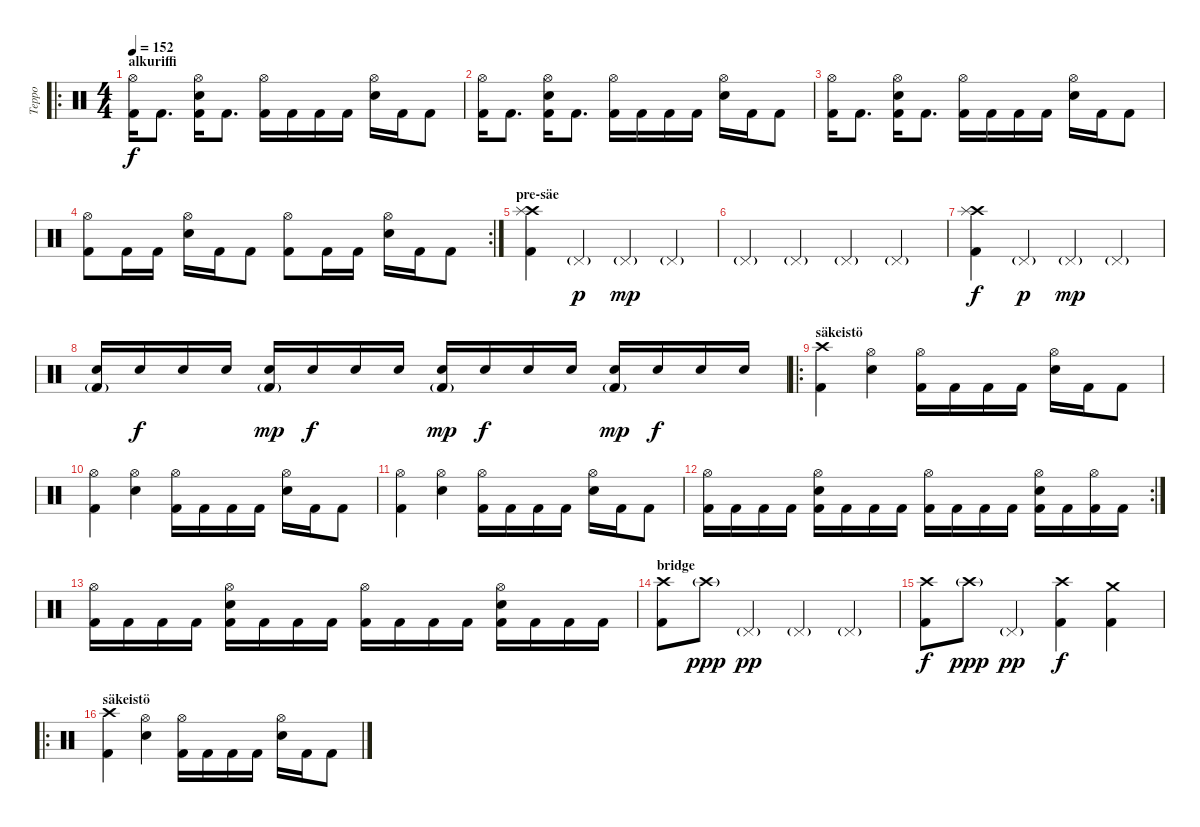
\track ("Teppo" "Teppo") {instrument percussion}
\staff {score}
\articulation defaults
\ro
\ts (4 4)
\section ("" "alkuriffi")
\tempo 152
\clef neutral
\ks c
("Hi-Hat (open)" "Kick (hit) 2").16{dy f} "Kick (hit) 2".8{d} ("Hi-Hat (open)" "Electric Snare (hit)" "Kick (hit) 2").16 "Kick (hit) 2".8{d} ("Hi-Hat (open)" "Kick (hit) 2").16 "Kick (hit) 2".16 "Kick (hit) 2".16 "Kick (hit) 2".16 ("Hi-Hat (open)" "Electric Snare (hit)").16 "Kick (hit) 2".16 "Kick (hit) 2".8 |
("Hi-Hat (open)" "Kick (hit) 2").16 "Kick (hit) 2".8{d} ("Hi-Hat (open)" "Electric Snare (hit)" "Kick (hit) 2").16 "Kick (hit) 2".8{d} ("Hi-Hat (open)" "Kick (hit) 2").16 "Kick (hit) 2".16 "Kick (hit) 2".16 "Kick (hit) 2".16 ("Hi-Hat (open)" "Electric Snare (hit)").16 "Kick (hit) 2".16 "Kick (hit) 2".8 |
("Hi-Hat (open)" "Kick (hit) 2").16 "Kick (hit) 2".8{d} ("Hi-Hat (open)" "Electric Snare (hit)" "Kick (hit) 2").16 "Kick (hit) 2".8{d} ("Hi-Hat (open)" "Kick (hit) 2").16 "Kick (hit) 2".16 "Kick (hit) 2".16 "Kick (hit) 2".16 ("Hi-Hat (open)" "Electric Snare (hit)").16 "Kick (hit) 2".16 "Kick (hit) 2".8 |
\rc 2
("Hi-Hat (open)" "Kick (hit) 2").8 "Kick (hit) 2".16 "Kick (hit) 2".16 ("Hi-Hat (open)" "Electric Snare (hit)").16 "Kick (hit) 2".16 "Kick (hit) 2".8 ("Hi-Hat (open)" "Kick (hit) 2").8 "Kick (hit) 2".16 "Kick (hit) 2".16 ("Hi-Hat (open)" "Electric Snare (hit)").16 "Kick (hit) 2".16 "Kick (hit) 2".8 |
\section ("" "pre-säe")
("Crash high (hit)" "Splash (hit)" "Kick (hit) 2").4 "Pedal Hi-Hat (hit)"{g}.4{dy p} "Pedal Hi-Hat (hit)"{g}.4{dy mp} "Pedal Hi-Hat (hit)"{g}.4 |
"Pedal Hi-Hat (hit)"{g}.4 "Pedal Hi-Hat (hit)"{g}.4 "Pedal Hi-Hat (hit)"{g}.4 "Pedal Hi-Hat (hit)"{g}.4 |
("Crash high (hit)" "Splash (hit)" "Kick (hit) 2").4{dy f} "Pedal Hi-Hat (hit)"{g}.4{dy p} "Pedal Hi-Hat (hit)"{g}.4{dy mp} "Pedal Hi-Hat (hit)"{g}.4 |
("Electric Snare (hit)" "Kick (hit) 2"{g}).16 "Electric Snare (hit)".16{dy f} "Electric Snare (hit)".16 "Electric Snare (hit)".16 ("Electric Snare (hit)" "Kick (hit) 2"{g}).16{dy mp} "Electric Snare (hit)".16{dy f} "Electric Snare (hit)".16 "Electric Snare (hit)".16 ("Electric Snare (hit)" "Kick (hit) 2"{g}).16{dy mp} "Electric Snare (hit)".16{dy f} "Electric Snare (hit)".16 "Electric Snare (hit)".16 ("Electric Snare (hit)" "Kick (hit) 2"{g}).16{dy mp} "Electric Snare (hit)".16{dy f} "Electric Snare (hit)".16 "Electric Snare (hit)".16 |
\ro
\section ("" "säkeistö")
("Crash high (hit)" "Kick (hit) 2").4 ("Hi-Hat (open)" "Electric Snare (hit)").4 ("Hi-Hat (open)" "Kick (hit) 2").16 "Kick (hit) 2".16 "Kick (hit) 2".16 "Kick (hit) 2".16 ("Hi-Hat (open)" "Electric Snare (hit)").16 "Kick (hit) 2".16 "Kick (hit) 2".8 |
("Hi-Hat (open)" "Kick (hit) 2").4 ("Hi-Hat (open)" "Electric Snare (hit)").4 ("Hi-Hat (open)" "Kick (hit) 2").16 "Kick (hit) 2".16 "Kick (hit) 2".16 "Kick (hit) 2".16 ("Hi-Hat (open)" "Electric Snare (hit)").16 "Kick (hit) 2".16 "Kick (hit) 2".8 |
("Hi-Hat (open)" "Kick (hit) 2").4 ("Hi-Hat (open)" "Electric Snare (hit)").4 ("Hi-Hat (open)" "Kick (hit) 2").16 "Kick (hit) 2".16 "Kick (hit) 2".16 "Kick (hit) 2".16 ("Hi-Hat (open)" "Electric Snare (hit)").16 "Kick (hit) 2".16 "Kick (hit) 2".8 |
\rc 2
("Hi-Hat (open)" "Kick (hit) 2").16 "Kick (hit) 2".16 "Kick (hit) 2".16 "Kick (hit) 2".16 ("Hi-Hat (open)" "Electric Snare (hit)" "Kick (hit) 2").16 "Kick (hit) 2".16 "Kick (hit) 2".16 "Kick (hit) 2".16 ("Hi-Hat (open)" "Kick (hit) 2").16 "Kick (hit) 2".16 "Kick (hit) 2".16 "Kick (hit) 2".16 ("Hi-Hat (open)" "Electric Snare (hit)" "Kick (hit) 2").16 "Kick (hit) 2".16 ("Hi-Hat (open)" "Kick (hit) 2").16 "Kick (hit) 2".16 |
("Hi-Hat (open)" "Kick (hit) 2").16 "Kick (hit) 2".16 "Kick (hit) 2".16 "Kick (hit) 2".16 ("Hi-Hat (open)" "Electric Snare (hit)" "Kick (hit) 2").16 "Kick (hit) 2".16 "Kick (hit) 2".16 "Kick (hit) 2".16 ("Hi-Hat (open)" "Kick (hit) 2").16 "Kick (hit) 2".16 "Kick (hit) 2".16 "Kick (hit) 2".16 ("Hi-Hat (open)" "Electric Snare (hit)" "Kick (hit) 2").16 "Kick (hit) 2".16 "Kick (hit) 2".16 "Kick (hit) 2".16 |
\section ("" "bridge")
("Crash high (hit)" "Kick (hit) 2").8 "Crash high (hit)"{g}.8{dy ppp} "Pedal Hi-Hat (hit)"{g}.4{dy pp} "Pedal Hi-Hat (hit)"{g}.4 "Pedal Hi-Hat (hit)"{g}.4 |
("Crash high (hit)" "Kick (hit) 2").8{dy f} "Crash high (hit)"{g}.8{dy ppp} "Pedal Hi-Hat (hit)"{g}.4{dy pp} ("Crash high (hit)" "Kick (hit) 2").4{dy f} ("Crash medium (hit)" "Kick (hit) 2").4 |
\ro
\section ("" "säkeistö")
("Crash high (hit)" "Kick (hit) 2").4 ("Hi-Hat (open)" "Electric Snare (hit)").4 ("Hi-Hat (open)" "Kick (hit) 2").16 "Kick (hit) 2".16 "Kick (hit) 2".16 "Kick (hit) 2".16 ("Hi-Hat (open)" "Electric Snare (hit)").16 "Kick (hit) 2".16 "Kick (hit) 2".8
